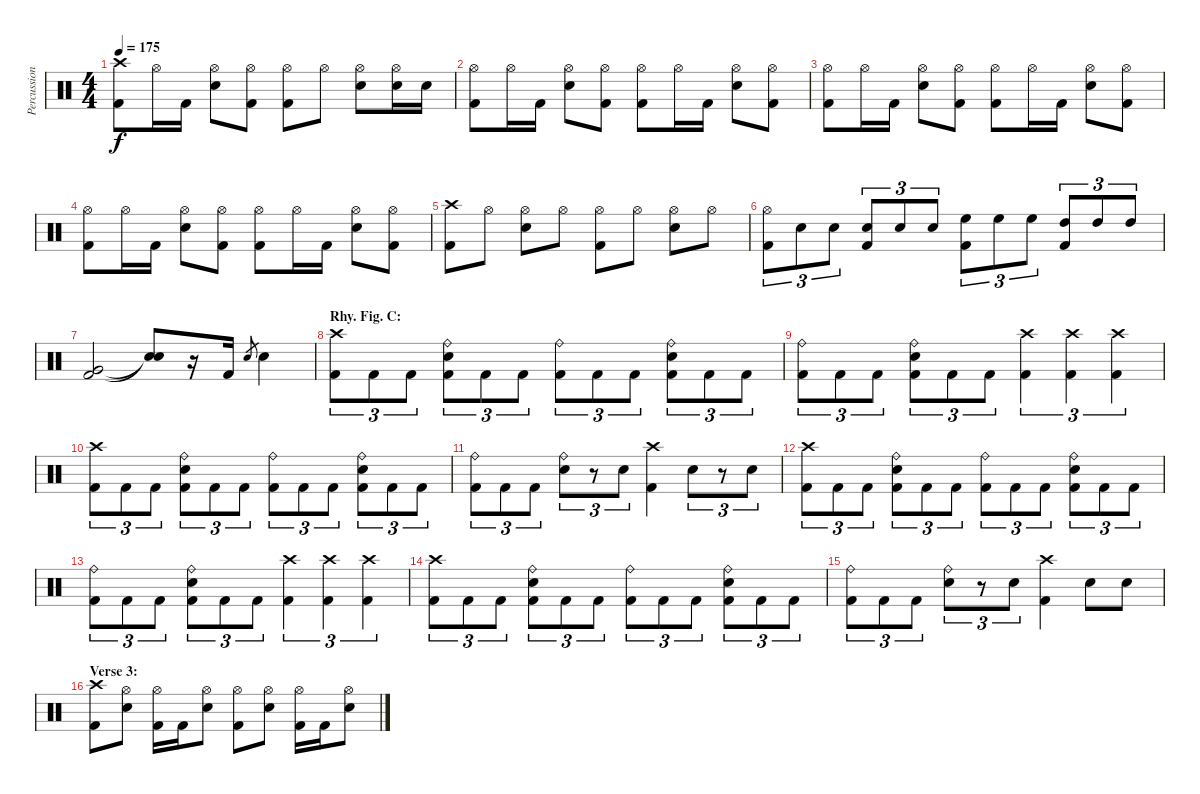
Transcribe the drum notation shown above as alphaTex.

\track ("Percussion" "Percussion") {instrument percussion}
\staff {score}
\articulation defaults
\ts (4 4)
\tempo 175
\clef neutral
\ks c
("Crash high (hit)" "Kick (hit) 2").8{dy f} "Hi-Hat (open)".16 "Kick (hit) 2".16 ("Hi-Hat (open)" "Electric Snare (hit)").8 ("Hi-Hat (open)" "Kick (hit) 2").8 ("Hi-Hat (open)" "Kick (hit) 2").8 "Hi-Hat (open)".8 ("Hi-Hat (open)" "Electric Snare (hit)").8 ("Hi-Hat (open)" "Electric Snare (hit)").16 "Electric Snare (hit)".16 |
("Hi-Hat (open)" "Kick (hit) 2").8 "Hi-Hat (open)".16 "Kick (hit) 2".16 ("Hi-Hat (open)" "Electric Snare (hit)").8 ("Hi-Hat (open)" "Kick (hit) 2").8 ("Hi-Hat (open)" "Kick (hit) 2").8 "Hi-Hat (open)".16 "Kick (hit) 2".16 ("Hi-Hat (open)" "Electric Snare (hit)").8 ("Hi-Hat (open)" "Kick (hit) 2").8 |
("Hi-Hat (open)" "Kick (hit) 2").8 "Hi-Hat (open)".16 "Kick (hit) 2".16 ("Hi-Hat (open)" "Electric Snare (hit)").8 ("Hi-Hat (open)" "Kick (hit) 2").8 ("Hi-Hat (open)" "Kick (hit) 2").8 "Hi-Hat (open)".16 "Kick (hit) 2".16 ("Hi-Hat (open)" "Electric Snare (hit)").8 ("Hi-Hat (open)" "Kick (hit) 2").8 |
("Hi-Hat (open)" "Kick (hit) 2").8 "Hi-Hat (open)".16 "Kick (hit) 2".16 ("Hi-Hat (open)" "Electric Snare (hit)").8 ("Hi-Hat (open)" "Kick (hit) 2").8 ("Hi-Hat (open)" "Kick (hit) 2").8 "Hi-Hat (open)".16 "Kick (hit) 2".16 ("Hi-Hat (open)" "Electric Snare (hit)").8 ("Hi-Hat (open)" "Kick (hit) 2").8 |
("Crash high (hit)" "Kick (hit) 2").8 "Hi-Hat (open)".8 ("Hi-Hat (open)" "Electric Snare (hit)").8 "Hi-Hat (open)".8 ("Hi-Hat (open)" "Kick (hit) 2").8 "Hi-Hat (open)".8 ("Hi-Hat (open)" "Electric Snare (hit)").8 "Hi-Hat (open)".8 |
("Hi-Hat (open)" "Kick (hit) 2").8{tu (3 2)} "Electric Snare (hit)".8{tu (3 2)} "Electric Snare (hit)".8{tu (3 2)} ("Electric Snare (hit)" "Kick (hit) 2").8{tu (3 2)} "Electric Snare (hit)".8{tu (3 2)} "Electric Snare (hit)".8{tu (3 2)} ("High Floor Tom (hit)" "Kick (hit) 2").8{tu (3 2)} "High Floor Tom (hit)".8{tu (3 2)} "High Floor Tom (hit)".8{tu (3 2)} ("High Tom (hit)" "Kick (hit) 2").8{tu (3 2)} "High Tom (hit)".8{tu (3 2)} "High Tom (hit)".8{tu (3 2)} |
("Very Low Tom (hit)" "Kick (hit) 2").2 ("Snare (hit)"{t} "Snare (hit)"{t}).8 r.16 "Kick (hit) 2".16 "Electric Snare (hit)".8{gr} "Electric Snare (hit)".4 |
\section ("" "Rhy. Fig. C:")
("Crash high (hit)" "Kick (hit) 2").8{tu (3 2)} "Kick (hit) 2".8{tu (3 2)} "Kick (hit) 2".8{tu (3 2)} ("Ride (bell)" "Electric Snare (hit)" "Kick (hit) 2").8{tu (3 2)} "Kick (hit) 2".8{tu (3 2)} "Kick (hit) 2".8{tu (3 2)} ("Ride (bell)" "Kick (hit) 2").8{tu (3 2)} "Kick (hit) 2".8{tu (3 2)} "Kick (hit) 2".8{tu (3 2)} ("Ride (bell)" "Electric Snare (hit)" "Kick (hit) 2").8{tu (3 2)} "Kick (hit) 2".8{tu (3 2)} "Kick (hit) 2".8{tu (3 2)} |
("Ride (bell)" "Kick (hit) 2").8{tu (3 2)} "Kick (hit) 2".8{tu (3 2)} "Kick (hit) 2".8{tu (3 2)} ("Ride (bell)" "Electric Snare (hit)" "Kick (hit) 2").8{tu (3 2)} "Kick (hit) 2".8{tu (3 2)} "Kick (hit) 2".8{tu (3 2)} ("Crash high (hit)" "Kick (hit) 2").4{tu (3 2)} ("Crash high (hit)" "Kick (hit) 2").4{tu (3 2)} ("Crash high (hit)" "Kick (hit) 2").4{tu (3 2)} |
("Crash high (hit)" "Kick (hit) 2").8{tu (3 2)} "Kick (hit) 2".8{tu (3 2)} "Kick (hit) 2".8{tu (3 2)} ("Ride (bell)" "Electric Snare (hit)" "Kick (hit) 2").8{tu (3 2)} "Kick (hit) 2".8{tu (3 2)} "Kick (hit) 2".8{tu (3 2)} ("Ride (bell)" "Kick (hit) 2").8{tu (3 2)} "Kick (hit) 2".8{tu (3 2)} "Kick (hit) 2".8{tu (3 2)} ("Ride (bell)" "Electric Snare (hit)" "Kick (hit) 2").8{tu (3 2)} "Kick (hit) 2".8{tu (3 2)} "Kick (hit) 2".8{tu (3 2)} |
("Ride (bell)" "Kick (hit) 2").8{tu (3 2)} "Kick (hit) 2".8{tu (3 2)} "Kick (hit) 2".8{tu (3 2)} ("Ride (bell)" "Electric Snare (hit)").8{tu (3 2)} r.8{tu (3 2)} "Electric Snare (hit)".8{tu (3 2)} ("Crash high (hit)" "Kick (hit) 2").4 "Electric Snare (hit)".8{tu (3 2)} r.8{tu (3 2)} "Electric Snare (hit)".8{tu (3 2)} |
("Crash high (hit)" "Kick (hit) 2").8{tu (3 2)} "Kick (hit) 2".8{tu (3 2)} "Kick (hit) 2".8{tu (3 2)} ("Ride (bell)" "Electric Snare (hit)" "Kick (hit) 2").8{tu (3 2)} "Kick (hit) 2".8{tu (3 2)} "Kick (hit) 2".8{tu (3 2)} ("Ride (bell)" "Kick (hit) 2").8{tu (3 2)} "Kick (hit) 2".8{tu (3 2)} "Kick (hit) 2".8{tu (3 2)} ("Ride (bell)" "Electric Snare (hit)" "Kick (hit) 2").8{tu (3 2)} "Kick (hit) 2".8{tu (3 2)} "Kick (hit) 2".8{tu (3 2)} |
("Ride (bell)" "Kick (hit) 2").8{tu (3 2)} "Kick (hit) 2".8{tu (3 2)} "Kick (hit) 2".8{tu (3 2)} ("Ride (bell)" "Electric Snare (hit)" "Kick (hit) 2").8{tu (3 2)} "Kick (hit) 2".8{tu (3 2)} "Kick (hit) 2".8{tu (3 2)} ("Crash high (hit)" "Kick (hit) 2").4{tu (3 2)} ("Crash high (hit)" "Kick (hit) 2").4{tu (3 2)} ("Crash high (hit)" "Kick (hit) 2").4{tu (3 2)} |
("Crash high (hit)" "Kick (hit) 2").8{tu (3 2)} "Kick (hit) 2".8{tu (3 2)} "Kick (hit) 2".8{tu (3 2)} ("Ride (bell)" "Electric Snare (hit)" "Kick (hit) 2").8{tu (3 2)} "Kick (hit) 2".8{tu (3 2)} "Kick (hit) 2".8{tu (3 2)} ("Ride (bell)" "Kick (hit) 2").8{tu (3 2)} "Kick (hit) 2".8{tu (3 2)} "Kick (hit) 2".8{tu (3 2)} ("Ride (bell)" "Electric Snare (hit)" "Kick (hit) 2").8{tu (3 2)} "Kick (hit) 2".8{tu (3 2)} "Kick (hit) 2".8{tu (3 2)} |
("Ride (bell)" "Kick (hit) 2").8{tu (3 2)} "Kick (hit) 2".8{tu (3 2)} "Kick (hit) 2".8{tu (3 2)} ("Ride (bell)" "Electric Snare (hit)").8{tu (3 2)} r.8{tu (3 2)} "Electric Snare (hit)".8{tu (3 2)} ("Crash high (hit)" "Kick (hit) 2").4 "Electric Snare (hit)".8 "Electric Snare (hit)".8 |
\section ("" "Verse 3:")
("Crash high (hit)" "Kick (hit) 2").8 ("Hi-Hat (open)" "Electric Snare (hit)").8 ("Hi-Hat (open)" "Kick (hit) 2").16 "Kick (hit) 2".16 ("Hi-Hat (open)" "Electric Snare (hit)").8 ("Hi-Hat (open)" "Kick (hit) 2").8 ("Hi-Hat (open)" "Electric Snare (hit)").8 ("Hi-Hat (open)" "Kick (hit) 2").16 "Kick (hit) 2".16 ("Hi-Hat (open)" "Electric Snare (hit)").8
